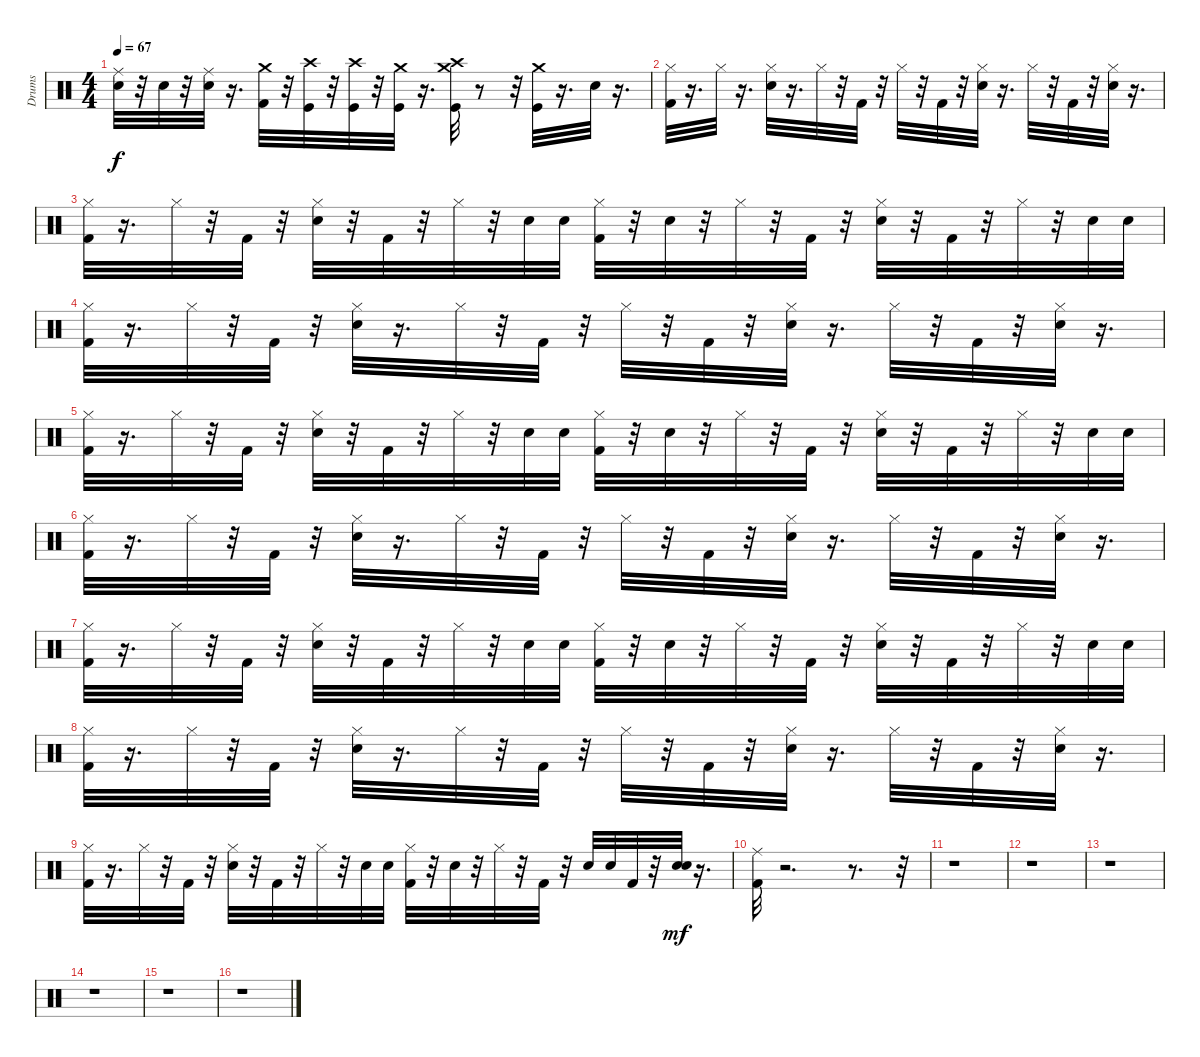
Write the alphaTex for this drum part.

\track ("Drums" "Drums") {instrument percussion}
\staff {score}
\articulation defaults
\ts (4 4)
\tempo 67
\clef neutral
\ks c
("Snare (hit) 2" "Ride (middle)").32{dy f} r.32 "Snare (hit) 2".32 r.32 ("Snare (hit) 2" "Ride (middle)").32 r.16{d} ("Crash medium (hit)" "Kick (hit) 2").32 r.32 ("Crash high (hit)" "Kick (hit)").32 r.32 ("Crash high (hit)" "Kick (hit)").32 r.32 ("Crash medium (hit)" "Kick (hit)").32 r.16{d} ("Crash high (hit)" "Crash medium (hit)" "Kick (hit)").32 r.8 r.32 ("Crash medium (hit)" "Kick (hit)").32 r.16{d} "Snare (hit) 2".32 r.16{d} |
("Kick (hit) 2" "Hi-Hat (closed)").32 r.16{d} "Hi-Hat (closed)".32 r.16{d} ("Snare (hit) 2" "Hi-Hat (closed)").32 r.16{d} "Hi-Hat (closed)".32 r.32 "Kick (hit) 2".32 r.32 "Hi-Hat (closed)".32 r.32 "Kick (hit) 2".32 r.32 ("Snare (hit) 2" "Hi-Hat (closed)").32 r.16{d} "Hi-Hat (closed)".32 r.32 "Kick (hit) 2".32 r.32 ("Snare (hit) 2" "Hi-Hat (closed)").32 r.16{d} |
("Kick (hit) 2" "Hi-Hat (closed)").32 r.16{d} "Hi-Hat (closed)".32 r.32 "Kick (hit) 2".32 r.32 ("Snare (hit) 2" "Hi-Hat (closed)").32 r.32 "Kick (hit) 2".32 r.32 "Hi-Hat (closed)".32 r.32 "Snare (hit) 2".32 "Snare (hit) 2".32 ("Kick (hit) 2" "Hi-Hat (closed)").32 r.32 "Snare (hit) 2".32 r.32 "Hi-Hat (closed)".32 r.32 "Kick (hit) 2".32 r.32 ("Snare (hit) 2" "Hi-Hat (closed)").32 r.32 "Kick (hit) 2".32 r.32 "Hi-Hat (closed)".32 r.32 "Snare (hit) 2".32 "Snare (hit) 2".32 |
("Kick (hit) 2" "Hi-Hat (closed)").32 r.16{d} "Hi-Hat (closed)".32 r.32 "Kick (hit) 2".32 r.32 ("Snare (hit) 2" "Hi-Hat (closed)").32 r.16{d} "Hi-Hat (closed)".32 r.32 "Kick (hit) 2".32 r.32 "Hi-Hat (closed)".32 r.32 "Kick (hit) 2".32 r.32 ("Snare (hit) 2" "Hi-Hat (closed)").32 r.16{d} "Hi-Hat (closed)".32 r.32 "Kick (hit) 2".32 r.32 ("Snare (hit) 2" "Hi-Hat (closed)").32 r.16{d} |
("Kick (hit) 2" "Hi-Hat (closed)").32 r.16{d} "Hi-Hat (closed)".32 r.32 "Kick (hit) 2".32 r.32 ("Snare (hit) 2" "Hi-Hat (closed)").32 r.32 "Kick (hit) 2".32 r.32 "Hi-Hat (closed)".32 r.32 "Snare (hit) 2".32 "Snare (hit) 2".32 ("Kick (hit) 2" "Hi-Hat (closed)").32 r.32 "Snare (hit) 2".32 r.32 "Hi-Hat (closed)".32 r.32 "Kick (hit) 2".32 r.32 ("Snare (hit) 2" "Hi-Hat (closed)").32 r.32 "Kick (hit) 2".32 r.32 "Hi-Hat (closed)".32 r.32 "Snare (hit) 2".32 "Snare (hit) 2".32 |
("Kick (hit) 2" "Hi-Hat (closed)").32 r.16{d} "Hi-Hat (closed)".32 r.32 "Kick (hit) 2".32 r.32 ("Snare (hit) 2" "Hi-Hat (closed)").32 r.16{d} "Hi-Hat (closed)".32 r.32 "Kick (hit) 2".32 r.32 "Hi-Hat (closed)".32 r.32 "Kick (hit) 2".32 r.32 ("Snare (hit) 2" "Hi-Hat (closed)").32 r.16{d} "Hi-Hat (closed)".32 r.32 "Kick (hit) 2".32 r.32 ("Snare (hit) 2" "Hi-Hat (closed)").32 r.16{d} |
("Kick (hit) 2" "Hi-Hat (closed)").32 r.16{d} "Hi-Hat (closed)".32 r.32 "Kick (hit) 2".32 r.32 ("Snare (hit) 2" "Hi-Hat (closed)").32 r.32 "Kick (hit) 2".32 r.32 "Hi-Hat (closed)".32 r.32 "Snare (hit) 2".32 "Snare (hit) 2".32 ("Kick (hit) 2" "Hi-Hat (closed)").32 r.32 "Snare (hit) 2".32 r.32 "Hi-Hat (closed)".32 r.32 "Kick (hit) 2".32 r.32 ("Snare (hit) 2" "Hi-Hat (closed)").32 r.32 "Kick (hit) 2".32 r.32 "Hi-Hat (closed)".32 r.32 "Snare (hit) 2".32 "Snare (hit) 2".32 |
("Kick (hit) 2" "Hi-Hat (closed)").32 r.16{d} "Hi-Hat (closed)".32 r.32 "Kick (hit) 2".32 r.32 ("Snare (hit) 2" "Hi-Hat (closed)").32 r.16{d} "Hi-Hat (closed)".32 r.32 "Kick (hit) 2".32 r.32 "Hi-Hat (closed)".32 r.32 "Kick (hit) 2".32 r.32 ("Snare (hit) 2" "Hi-Hat (closed)").32 r.16{d} "Hi-Hat (closed)".32 r.32 "Kick (hit) 2".32 r.32 ("Snare (hit) 2" "Hi-Hat (closed)").32 r.16{d} |
("Kick (hit) 2" "Hi-Hat (closed)").32 r.16{d} "Hi-Hat (closed)".32 r.32 "Kick (hit) 2".32 r.32 ("Snare (hit) 2" "Hi-Hat (closed)").32 r.32 "Kick (hit) 2".32 r.32 "Hi-Hat (closed)".32 r.32 "Snare (hit) 2".32 "Snare (hit) 2".32 ("Kick (hit) 2" "Hi-Hat (closed)").32 r.32 "Snare (hit) 2".32 r.32 "Hi-Hat (closed)".32 r.32 "Kick (hit) 2".32 r.32 "Snare (hit) 2".32 "Snare (hit) 2".32 "Kick (hit) 2".32 r.32 ("Electric Snare (hit)" "Snare (hit) 2").32{dy mf} r.16{d} |
("Ride (middle)" "Kick (hit) 2").32 r.2{d} r.8{d} r.32 |
r.1 |
r.1 |
r.1 |
r.1 |
r.1 |
r.1
